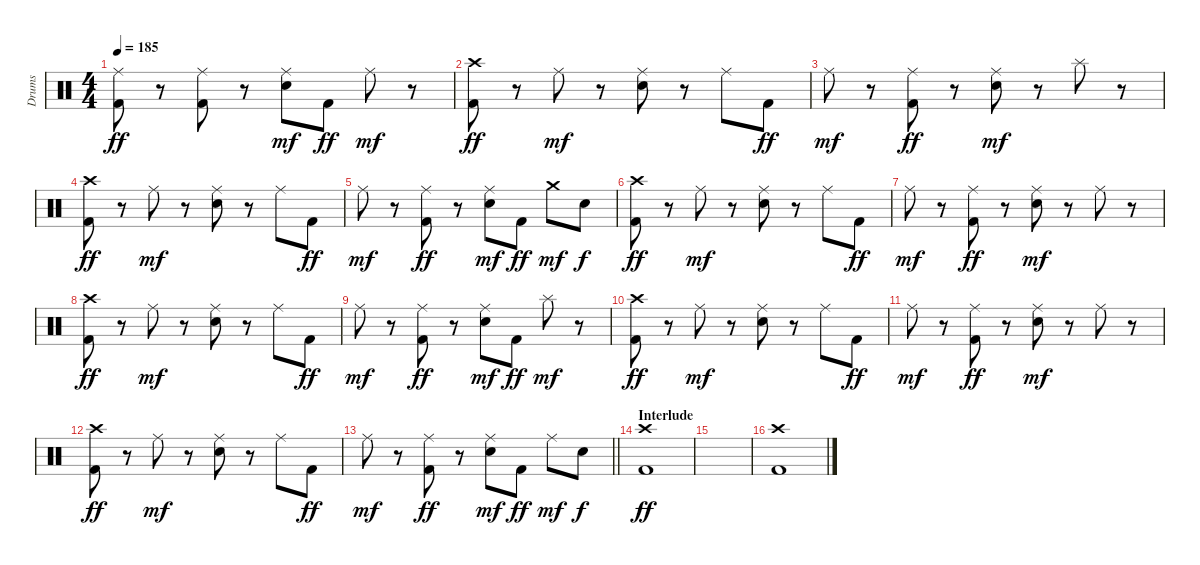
\track ("Drums" "Drums") {instrument percussion}
\staff {score}
\articulation defaults
\ts (4 4)
\tempo 185
\clef neutral
\ks c
("Ride (middle)" "Kick (hit) 2").8{dy ff} r.8 ("Ride (middle)" "Kick (hit) 2").8 r.8 ("Ride (middle)" "Electric Snare (hit)").8{dy mf} "Kick (hit) 2".8{dy ff} "Ride (middle)".8{dy mf} r.8 |
("Crash high (hit)" "Kick (hit) 2").8{dy ff} r.8 "Ride (middle)".8{dy mf} r.8 ("Ride (middle)" "Electric Snare (hit)").8 r.8 "Ride (middle)".8 "Kick (hit) 2".8{dy ff} |
"Ride (middle)".8{dy mf} r.8 ("Ride (middle)" "Kick (hit) 2").8{dy ff} r.8 ("Ride (middle)" "Electric Snare (hit)").8{dy mf} r.8 "Splash (hit)".8 r.8 |
("Crash high (hit)" "Kick (hit) 2").8{dy ff} r.8 "Ride (middle)".8{dy mf} r.8 ("Ride (middle)" "Electric Snare (hit)").8 r.8 "Ride (middle)".8 "Kick (hit) 2".8{dy ff} |
"Ride (middle)".8{dy mf} r.8 ("Ride (middle)" "Kick (hit) 2").8{dy ff} r.8 ("Ride (middle)" "Electric Snare (hit)").8{dy mf} "Kick (hit) 2".8{dy ff} "Crash medium (hit)".8{dy mf} "Electric Snare (hit)".8{dy f} |
("Crash high (hit)" "Kick (hit) 2").8{dy ff} r.8 "Ride (middle)".8{dy mf} r.8 ("Ride (middle)" "Electric Snare (hit)").8 r.8 "Ride (middle)".8 "Kick (hit) 2".8{dy ff} |
"Ride (middle)".8{dy mf} r.8 ("Ride (middle)" "Kick (hit) 2").8{dy ff} r.8 ("Ride (middle)" "Electric Snare (hit)").8{dy mf} r.8 "Ride (middle)".8 r.8 |
("Crash high (hit)" "Kick (hit) 2").8{dy ff} r.8 "Ride (middle)".8{dy mf} r.8 ("Ride (middle)" "Electric Snare (hit)").8 r.8 "Ride (middle)".8 "Kick (hit) 2".8{dy ff} |
"Ride (middle)".8{dy mf} r.8 ("Ride (middle)" "Kick (hit) 2").8{dy ff} r.8 ("Ride (middle)" "Electric Snare (hit)").8{dy mf} "Kick (hit) 2".8{dy ff} "Splash (hit)".8{dy mf} r.8 |
("Crash high (hit)" "Kick (hit) 2").8{dy ff} r.8 "Ride (middle)".8{dy mf} r.8 ("Ride (middle)" "Electric Snare (hit)").8 r.8 "Ride (middle)".8 "Kick (hit) 2".8{dy ff} |
"Ride (middle)".8{dy mf} r.8 ("Ride (middle)" "Kick (hit) 2").8{dy ff} r.8 ("Ride (middle)" "Electric Snare (hit)").8{dy mf} r.8 "Ride (middle)".8 r.8 |
("Crash high (hit)" "Kick (hit) 2").8{dy ff} r.8 "Ride (middle)".8{dy mf} r.8 ("Ride (middle)" "Electric Snare (hit)").8 r.8 "Ride (middle)".8 "Kick (hit) 2".8{dy ff} |
\barLineRight lightlight "Ride (middle)".8{dy mf}
r.8 ("Ride (middle)" "Kick (hit) 2").8{dy ff} r.8 ("Ride (middle)" "Electric Snare (hit)").8{dy mf} "Kick (hit) 2".8{dy ff} "Ride (middle)".8{dy mf} "Electric Snare (hit)".8{dy f} |
\section ("" "Interlude")
("Crash high (hit)" "Kick (hit) 2").1{dy ff} |
|
("Crash high (hit)" "Kick (hit) 2").1
